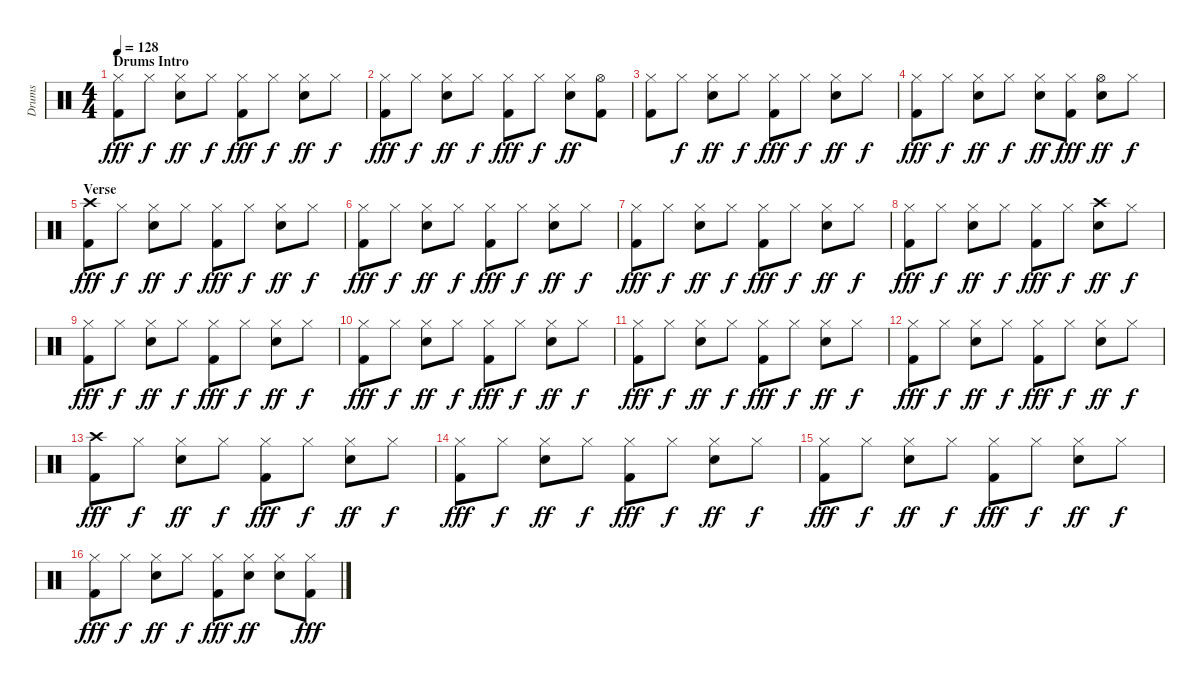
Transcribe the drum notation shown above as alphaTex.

\track ("Drums" "Drums") {instrument percussion}
\staff {score}
\articulation defaults
\ts (4 4)
\section ("" "Drums Intro")
\tempo 128
\clef neutral
\ks c
("Hi-Hat (closed)" "Kick (hit) 2").8{dy fff} "Hi-Hat (closed)".8{dy f} ("Hi-Hat (closed)" "Electric Snare (hit)").8{dy ff} "Hi-Hat (closed)".8{dy f} ("Hi-Hat (closed)" "Kick (hit) 2").8{dy fff} "Hi-Hat (closed)".8{dy f} ("Hi-Hat (closed)" "Electric Snare (hit)").8{dy ff} "Hi-Hat (closed)".8{dy f} |
("Hi-Hat (closed)" "Kick (hit) 2").8{dy fff} "Hi-Hat (closed)".8{dy f} ("Hi-Hat (closed)" "Electric Snare (hit)").8{dy ff} "Hi-Hat (closed)".8{dy f} ("Hi-Hat (closed)" "Kick (hit) 2").8{dy fff} "Hi-Hat (closed)".8{dy f} ("Hi-Hat (closed)" "Electric Snare (hit)").8{dy ff} ("Hi-Hat (open)" "Kick (hit) 2").8 |
("Hi-Hat (closed)" "Kick (hit) 2").8 "Hi-Hat (closed)".8{dy f} ("Hi-Hat (closed)" "Electric Snare (hit)").8{dy ff} "Hi-Hat (closed)".8{dy f} ("Hi-Hat (closed)" "Kick (hit) 2").8{dy fff} "Hi-Hat (closed)".8{dy f} ("Hi-Hat (closed)" "Electric Snare (hit)").8{dy ff} "Hi-Hat (closed)".8{dy f} |
("Hi-Hat (closed)" "Kick (hit) 2").8{dy fff} "Hi-Hat (closed)".8{dy f} ("Hi-Hat (closed)" "Electric Snare (hit)").8{dy ff} "Hi-Hat (closed)".8{dy f} ("Hi-Hat (closed)" "Electric Snare (hit)").8{dy ff} ("Hi-Hat (closed)" "Kick (hit) 2").8{dy fff} ("Hi-Hat (open)" "Electric Snare (hit)").8{dy ff} "Hi-Hat (closed)".8{dy f} |
\section ("" "Verse")
("Crash high (hit)" "Kick (hit) 2").8{dy fff} "Hi-Hat (closed)".8{dy f} ("Hi-Hat (closed)" "Electric Snare (hit)").8{dy ff} "Hi-Hat (closed)".8{dy f} ("Hi-Hat (closed)" "Kick (hit) 2").8{dy fff} "Hi-Hat (closed)".8{dy f} ("Hi-Hat (closed)" "Electric Snare (hit)").8{dy ff} "Hi-Hat (closed)".8{dy f} |
("Hi-Hat (closed)" "Kick (hit) 2").8{dy fff} "Hi-Hat (closed)".8{dy f} ("Hi-Hat (closed)" "Electric Snare (hit)").8{dy ff} "Hi-Hat (closed)".8{dy f} ("Hi-Hat (closed)" "Kick (hit) 2").8{dy fff} "Hi-Hat (closed)".8{dy f} ("Hi-Hat (closed)" "Electric Snare (hit)").8{dy ff} "Hi-Hat (closed)".8{dy f} |
("Hi-Hat (closed)" "Kick (hit) 2").8{dy fff} "Hi-Hat (closed)".8{dy f} ("Hi-Hat (closed)" "Electric Snare (hit)").8{dy ff} "Hi-Hat (closed)".8{dy f} ("Hi-Hat (closed)" "Kick (hit) 2").8{dy fff} "Hi-Hat (closed)".8{dy f} ("Hi-Hat (closed)" "Electric Snare (hit)").8{dy ff} "Hi-Hat (closed)".8{dy f} |
("Hi-Hat (closed)" "Kick (hit) 2").8{dy fff} "Hi-Hat (closed)".8{dy f} ("Hi-Hat (closed)" "Electric Snare (hit)").8{dy ff} "Hi-Hat (closed)".8{dy f} ("Hi-Hat (closed)" "Kick (hit) 2").8{dy fff} "Hi-Hat (closed)".8{dy f} ("Crash high (hit)" "Electric Snare (hit)").8{dy ff} "Hi-Hat (closed)".8{dy f} |
("Hi-Hat (closed)" "Kick (hit) 2").8{dy fff} "Hi-Hat (closed)".8{dy f} ("Hi-Hat (closed)" "Electric Snare (hit)").8{dy ff} "Hi-Hat (closed)".8{dy f} ("Hi-Hat (closed)" "Kick (hit) 2").8{dy fff} "Hi-Hat (closed)".8{dy f} ("Hi-Hat (closed)" "Electric Snare (hit)").8{dy ff} "Hi-Hat (closed)".8{dy f} |
("Hi-Hat (closed)" "Kick (hit) 2").8{dy fff} "Hi-Hat (closed)".8{dy f} ("Hi-Hat (closed)" "Electric Snare (hit)").8{dy ff} "Hi-Hat (closed)".8{dy f} ("Hi-Hat (closed)" "Kick (hit) 2").8{dy fff} "Hi-Hat (closed)".8{dy f} ("Hi-Hat (closed)" "Electric Snare (hit)").8{dy ff} "Hi-Hat (closed)".8{dy f} |
("Hi-Hat (closed)" "Kick (hit) 2").8{dy fff} "Hi-Hat (closed)".8{dy f} ("Hi-Hat (closed)" "Electric Snare (hit)").8{dy ff} "Hi-Hat (closed)".8{dy f} ("Hi-Hat (closed)" "Kick (hit) 2").8{dy fff} "Hi-Hat (closed)".8{dy f} ("Hi-Hat (closed)" "Electric Snare (hit)").8{dy ff} "Hi-Hat (closed)".8{dy f} |
("Hi-Hat (closed)" "Kick (hit) 2").8{dy fff} "Hi-Hat (closed)".8{dy f} ("Hi-Hat (closed)" "Electric Snare (hit)").8{dy ff} "Hi-Hat (closed)".8{dy f} ("Hi-Hat (closed)" "Kick (hit) 2").8{dy fff} "Hi-Hat (closed)".8{dy f} ("Hi-Hat (closed)" "Electric Snare (hit)").8{dy ff} "Hi-Hat (closed)".8{dy f} |
("Crash high (hit)" "Kick (hit) 2").8{dy fff} "Hi-Hat (closed)".8{dy f} ("Hi-Hat (closed)" "Electric Snare (hit)").8{dy ff} "Hi-Hat (closed)".8{dy f} ("Hi-Hat (closed)" "Kick (hit) 2").8{dy fff} "Hi-Hat (closed)".8{dy f} ("Hi-Hat (closed)" "Electric Snare (hit)").8{dy ff} "Hi-Hat (closed)".8{dy f} |
("Hi-Hat (closed)" "Kick (hit) 2").8{dy fff} "Hi-Hat (closed)".8{dy f} ("Hi-Hat (closed)" "Electric Snare (hit)").8{dy ff} "Hi-Hat (closed)".8{dy f} ("Hi-Hat (closed)" "Kick (hit) 2").8{dy fff} "Hi-Hat (closed)".8{dy f} ("Hi-Hat (closed)" "Electric Snare (hit)").8{dy ff} "Hi-Hat (closed)".8{dy f} |
("Hi-Hat (closed)" "Kick (hit) 2").8{dy fff} "Hi-Hat (closed)".8{dy f} ("Hi-Hat (closed)" "Electric Snare (hit)").8{dy ff} "Hi-Hat (closed)".8{dy f} ("Hi-Hat (closed)" "Kick (hit) 2").8{dy fff} "Hi-Hat (closed)".8{dy f} ("Hi-Hat (closed)" "Electric Snare (hit)").8{dy ff} "Hi-Hat (closed)".8{dy f} |
("Hi-Hat (closed)" "Kick (hit) 2").8{dy fff} "Hi-Hat (closed)".8{dy f} ("Hi-Hat (closed)" "Electric Snare (hit)").8{dy ff} "Hi-Hat (closed)".8{dy f} ("Hi-Hat (closed)" "Kick (hit) 2").8{dy fff} ("Hi-Hat (closed)" "Electric Snare (hit)").8{dy ff} ("Hi-Hat (closed)" "Electric Snare (hit)").8 ("Hi-Hat (closed)" "Kick (hit) 2").8{dy fff}
